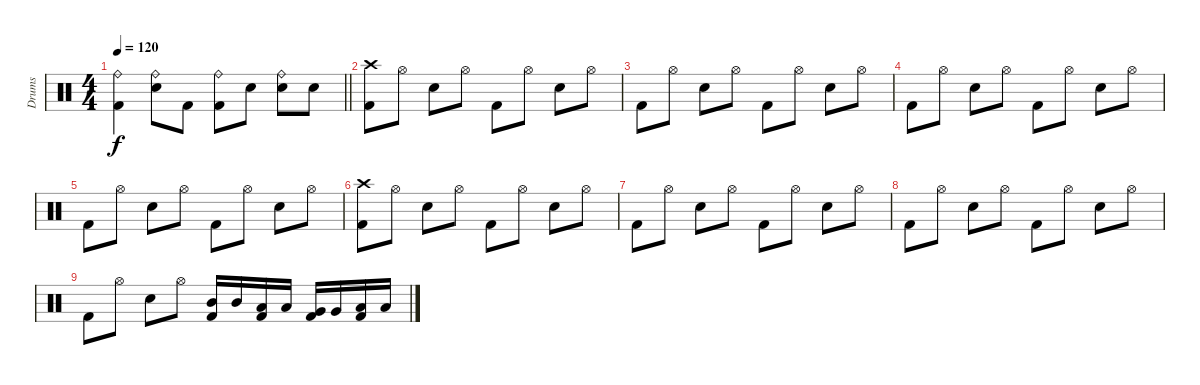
\track ("Drums" "Drums") {instrument percussion}
\staff
\articulation defaults
\ts (4 4)
\tempo 120
\clef neutral
\barLineRight lightlight
\ks c
("Ride (bell)" "Kick (hit) 2").4{dy f} ("Ride (bell)" "Electric Snare (hit)").8 "Kick (hit) 2".8 ("Ride (bell)" "Kick (hit) 2").8 "Electric Snare (hit)".8 ("Ride (bell)" "Electric Snare (hit)").8 "Electric Snare (hit)".8 |
\section ("" "")
("Crash high (hit)" "Kick (hit) 2").8 "Hi-Hat (open)".8 "Electric Snare (hit)".8 "Hi-Hat (open)".8 "Kick (hit) 2".8 "Hi-Hat (open)".8 "Electric Snare (hit)".8 "Hi-Hat (open)".8 |
"Kick (hit) 2".8 "Hi-Hat (open)".8 "Electric Snare (hit)".8 "Hi-Hat (open)".8 "Kick (hit) 2".8 "Hi-Hat (open)".8 "Electric Snare (hit)".8 "Hi-Hat (open)".8 |
"Kick (hit) 2".8 "Hi-Hat (open)".8 "Electric Snare (hit)".8 "Hi-Hat (open)".8 "Kick (hit) 2".8 "Hi-Hat (open)".8 "Electric Snare (hit)".8 "Hi-Hat (open)".8 |
"Kick (hit) 2".8 "Hi-Hat (open)".8 "Electric Snare (hit)".8 "Hi-Hat (open)".8 "Kick (hit) 2".8 "Hi-Hat (open)".8 "Electric Snare (hit)".8 "Hi-Hat (open)".8 |
("Crash high (hit)" "Kick (hit) 2").8 "Hi-Hat (open)".8 "Electric Snare (hit)".8 "Hi-Hat (open)".8 "Kick (hit) 2".8 "Hi-Hat (open)".8 "Electric Snare (hit)".8 "Hi-Hat (open)".8 |
"Kick (hit) 2".8 "Hi-Hat (open)".8 "Electric Snare (hit)".8 "Hi-Hat (open)".8 "Kick (hit) 2".8 "Hi-Hat (open)".8 "Electric Snare (hit)".8 "Hi-Hat (open)".8 |
"Kick (hit) 2".8 "Hi-Hat (open)".8 "Electric Snare (hit)".8 "Hi-Hat (open)".8 "Kick (hit) 2".8 "Hi-Hat (open)".8 "Electric Snare (hit)".8 "Hi-Hat (open)".8 |
"Kick (hit) 2".8 "Hi-Hat (open)".8 "Electric Snare (hit)".8 "Hi-Hat (open)".8 ("Mid Tom (hit)" "Kick (hit) 2").16 "Mid Tom (hit)".16 ("Low Tom (hit)" "Kick (hit) 2").16 "Low Tom (hit)".16 ("Very Low Tom (hit)" "Kick (hit) 2").16 "Very Low Tom (hit)".16 ("Low Floor Tom (hit)" "Kick (hit) 2").16 "Low Floor Tom (hit)".16
